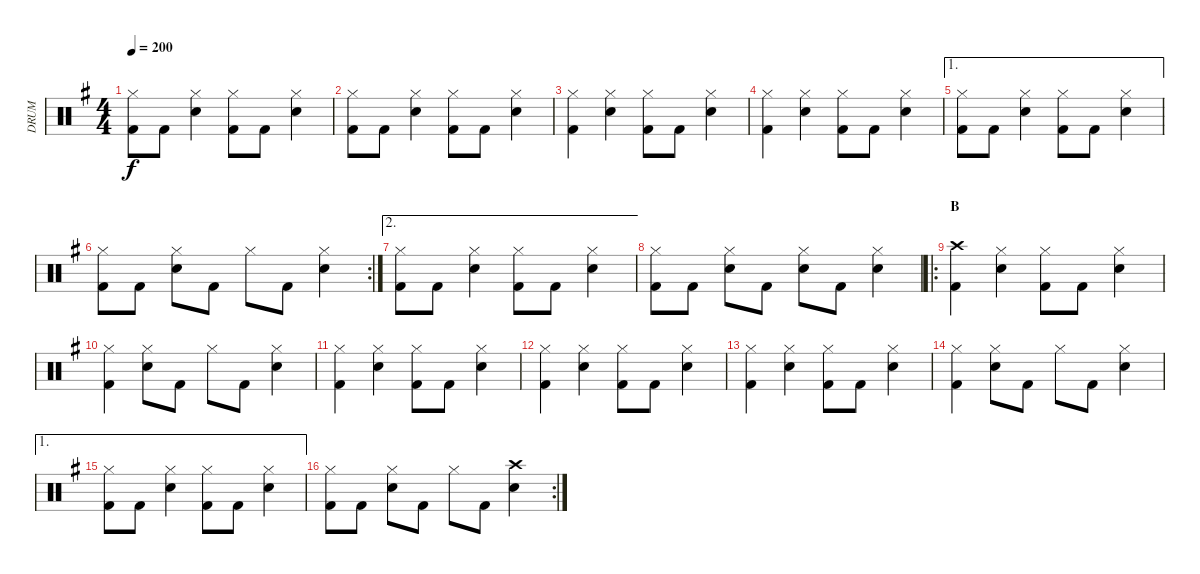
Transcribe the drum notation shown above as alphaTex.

\track ("DRUM" "DRUM") {instrument percussion}
\staff {score}
\articulation defaults
\ts (4 4)
\tempo 200
\clef neutral
\ks eminor
("Hi-Hat (closed)" "Kick (hit) 2").8{dy f} "Kick (hit) 2".8 ("Hi-Hat (closed)" "Snare (hit) 2").4 ("Hi-Hat (closed)" "Kick (hit) 2").8 "Kick (hit) 2".8 ("Hi-Hat (closed)" "Snare (hit) 2").4 |
("Hi-Hat (closed)" "Kick (hit) 2").8 "Kick (hit) 2".8 ("Hi-Hat (closed)" "Snare (hit) 2").4 ("Hi-Hat (closed)" "Kick (hit) 2").8 "Kick (hit) 2".8 ("Hi-Hat (closed)" "Snare (hit) 2").4 |
("Hi-Hat (closed)" "Kick (hit) 2").4 ("Hi-Hat (closed)" "Snare (hit) 2").4 ("Hi-Hat (closed)" "Kick (hit) 2").8 "Kick (hit) 2".8 ("Hi-Hat (closed)" "Snare (hit) 2").4 |
("Hi-Hat (closed)" "Kick (hit) 2").4 ("Hi-Hat (closed)" "Snare (hit) 2").4 ("Hi-Hat (closed)" "Kick (hit) 2").8 "Kick (hit) 2".8 ("Hi-Hat (closed)" "Snare (hit) 2").4 |
\ae 1
("Hi-Hat (closed)" "Kick (hit) 2").8 "Kick (hit) 2".8 ("Hi-Hat (closed)" "Snare (hit) 2").4 ("Hi-Hat (closed)" "Kick (hit) 2").8 "Kick (hit) 2".8 ("Hi-Hat (closed)" "Snare (hit) 2").4 |
\rc 2
("Hi-Hat (closed)" "Kick (hit) 2").8 "Kick (hit) 2".8 ("Hi-Hat (closed)" "Snare (hit) 2").8 "Kick (hit) 2".8 "Hi-Hat (closed)".8 "Kick (hit) 2".8 ("Hi-Hat (closed)" "Snare (hit) 2").4 |
\ae 2
("Hi-Hat (closed)" "Kick (hit) 2").8 "Kick (hit) 2".8 ("Hi-Hat (closed)" "Snare (hit) 2").4 ("Hi-Hat (closed)" "Kick (hit) 2").8 "Kick (hit) 2".8 ("Hi-Hat (closed)" "Snare (hit) 2").4 |
("Hi-Hat (closed)" "Kick (hit) 2").8 "Kick (hit) 2".8 ("Hi-Hat (closed)" "Snare (hit) 2").8 "Kick (hit) 2".8 ("Hi-Hat (closed)" "Snare (hit) 2").8 "Kick (hit) 2".8 ("Hi-Hat (closed)" "Snare (hit) 2").4 |
\ro
\section ("" "B")
("Crash high (hit)" "Kick (hit) 2").4 ("Hi-Hat (closed)" "Snare (hit) 2").4 ("Hi-Hat (closed)" "Kick (hit) 2").8 "Kick (hit) 2".8 ("Hi-Hat (closed)" "Snare (hit) 2").4 |
("Hi-Hat (closed)" "Kick (hit) 2").4 ("Hi-Hat (closed)" "Snare (hit) 2").8 "Kick (hit) 2".8 "Hi-Hat (closed)".8 "Kick (hit) 2".8 ("Hi-Hat (closed)" "Snare (hit) 2").4 |
("Hi-Hat (closed)" "Kick (hit) 2").4 ("Hi-Hat (closed)" "Snare (hit) 2").4 ("Hi-Hat (closed)" "Kick (hit) 2").8 "Kick (hit) 2".8 ("Hi-Hat (closed)" "Snare (hit) 2").4 |
("Hi-Hat (closed)" "Kick (hit) 2").4 ("Hi-Hat (closed)" "Snare (hit) 2").4 ("Hi-Hat (closed)" "Kick (hit) 2").8 "Kick (hit) 2".8 ("Hi-Hat (closed)" "Snare (hit) 2").4 |
("Hi-Hat (closed)" "Kick (hit) 2").4 ("Hi-Hat (closed)" "Snare (hit) 2").4 ("Hi-Hat (closed)" "Kick (hit) 2").8 "Kick (hit) 2".8 ("Hi-Hat (closed)" "Snare (hit) 2").4 |
("Hi-Hat (closed)" "Kick (hit) 2").4 ("Hi-Hat (closed)" "Snare (hit) 2").8 "Kick (hit) 2".8 "Hi-Hat (closed)".8 "Kick (hit) 2".8 ("Hi-Hat (closed)" "Snare (hit) 2").4 |
\ae 1
("Hi-Hat (closed)" "Kick (hit) 2").8 "Kick (hit) 2".8 ("Hi-Hat (closed)" "Snare (hit) 2").4 ("Hi-Hat (closed)" "Kick (hit) 2").8 "Kick (hit) 2".8 ("Hi-Hat (closed)" "Snare (hit) 2").4 |
\rc 2
("Hi-Hat (closed)" "Kick (hit) 2").8 "Kick (hit) 2".8 ("Hi-Hat (closed)" "Snare (hit) 2").8 "Kick (hit) 2".8 "Hi-Hat (closed)".8 "Kick (hit) 2".8 ("Crash high (hit)" "Snare (hit) 2").4
